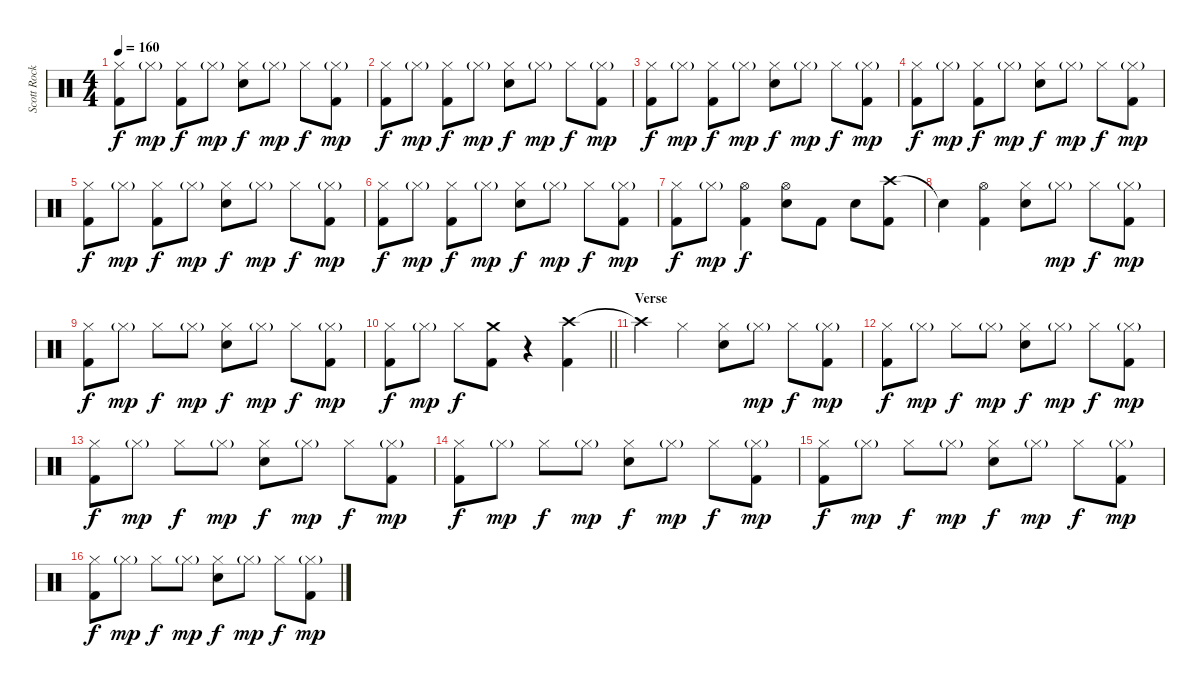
\track ("Scott Rockenfield" "Scott Rock") {instrument percussion}
\staff {score}
\articulation defaults
\ts (4 4)
\tempo 160
\clef neutral
\ks c
("Hi-Hat (closed)" "Kick (hit) 2").8{dy f} "Hi-Hat (closed)"{g}.8{dy mp} ("Hi-Hat (closed)" "Kick (hit) 2").8{dy f} "Hi-Hat (closed)"{g}.8{dy mp} ("Hi-Hat (closed)" "Electric Snare (hit)").8{dy f} "Hi-Hat (closed)"{g}.8{dy mp} "Hi-Hat (closed)".8{dy f} ("Hi-Hat (closed)"{g} "Kick (hit) 2").8{dy mp} |
("Hi-Hat (closed)" "Kick (hit) 2").8{dy f} "Hi-Hat (closed)"{g}.8{dy mp} ("Hi-Hat (closed)" "Kick (hit) 2").8{dy f} "Hi-Hat (closed)"{g}.8{dy mp} ("Hi-Hat (closed)" "Electric Snare (hit)").8{dy f} "Hi-Hat (closed)"{g}.8{dy mp} "Hi-Hat (closed)".8{dy f} ("Hi-Hat (closed)"{g} "Kick (hit) 2").8{dy mp} |
("Hi-Hat (closed)" "Kick (hit) 2").8{dy f} "Hi-Hat (closed)"{g}.8{dy mp} ("Hi-Hat (closed)" "Kick (hit) 2").8{dy f} "Hi-Hat (closed)"{g}.8{dy mp} ("Hi-Hat (closed)" "Electric Snare (hit)").8{dy f} "Hi-Hat (closed)"{g}.8{dy mp} "Hi-Hat (closed)".8{dy f} ("Hi-Hat (closed)"{g} "Kick (hit) 2").8{dy mp} |
("Hi-Hat (closed)" "Kick (hit) 2").8{dy f} "Hi-Hat (closed)"{g}.8{dy mp} ("Hi-Hat (closed)" "Kick (hit) 2").8{dy f} "Hi-Hat (closed)"{g}.8{dy mp} ("Hi-Hat (closed)" "Electric Snare (hit)").8{dy f} "Hi-Hat (closed)"{g}.8{dy mp} "Hi-Hat (closed)".8{dy f} ("Hi-Hat (closed)"{g} "Kick (hit) 2").8{dy mp} |
("Hi-Hat (closed)" "Kick (hit) 2").8{dy f} "Hi-Hat (closed)"{g}.8{dy mp} ("Hi-Hat (closed)" "Kick (hit) 2").8{dy f} "Hi-Hat (closed)"{g}.8{dy mp} ("Hi-Hat (closed)" "Electric Snare (hit)").8{dy f} "Hi-Hat (closed)"{g}.8{dy mp} "Hi-Hat (closed)".8{dy f} ("Hi-Hat (closed)"{g} "Kick (hit) 2").8{dy mp} |
("Hi-Hat (closed)" "Kick (hit) 2").8{dy f} "Hi-Hat (closed)"{g}.8{dy mp} ("Hi-Hat (closed)" "Kick (hit) 2").8{dy f} "Hi-Hat (closed)"{g}.8{dy mp} ("Hi-Hat (closed)" "Electric Snare (hit)").8{dy f} "Hi-Hat (closed)"{g}.8{dy mp} "Hi-Hat (closed)".8{dy f} ("Hi-Hat (closed)"{g} "Kick (hit) 2").8{dy mp} |
("Hi-Hat (closed)" "Kick (hit) 2").8{dy f} "Hi-Hat (closed)"{g}.8{dy mp} ("Hi-Hat (open)" "Kick (hit) 2").4{dy f} ("Hi-Hat (open)" "Electric Snare (hit)").8 "Kick (hit) 2".8 "Electric Snare (hit)".8 ("Crash high (hit)" "Kick (hit) 2").8 |
"Snare (hit)"{t}.4 ("Hi-Hat (open)" "Kick (hit) 2").4 ("Hi-Hat (closed)" "Electric Snare (hit)").8 "Hi-Hat (closed)"{g}.8{dy mp} "Hi-Hat (closed)".8{dy f} ("Hi-Hat (closed)"{g} "Kick (hit) 2").8{dy mp} |
("Hi-Hat (closed)" "Kick (hit) 2").8{dy f} "Hi-Hat (closed)"{g}.8{dy mp} "Hi-Hat (closed)".8{dy f} "Hi-Hat (closed)"{g}.8{dy mp} ("Hi-Hat (closed)" "Electric Snare (hit)").8{dy f} "Hi-Hat (closed)"{g}.8{dy mp} "Hi-Hat (closed)".8{dy f} ("Hi-Hat (closed)"{g} "Kick (hit) 2").8{dy mp} |
\barLineRight lightlight
("Hi-Hat (closed)" "Kick (hit) 2").8{dy f} "Hi-Hat (closed)"{g}.8{dy mp} "Hi-Hat (closed)".8{dy f} ("Crash medium (hit)" "Kick (hit) 2").8 r.4{volume 0} ("Crash high (hit)" "Kick (hit) 2").4{volume 16} |
\section ("" "Verse")
"Crash high (hit)"{t}.4 "Hi-Hat (closed)".4 ("Hi-Hat (closed)" "Electric Snare (hit)").8 "Hi-Hat (closed)"{g}.8{dy mp} "Hi-Hat (closed)".8{dy f} ("Hi-Hat (closed)"{g} "Kick (hit) 2").8{dy mp} |
("Hi-Hat (closed)" "Kick (hit) 2").8{dy f} "Hi-Hat (closed)"{g}.8{dy mp} "Hi-Hat (closed)".8{dy f} "Hi-Hat (closed)"{g}.8{dy mp} ("Hi-Hat (closed)" "Electric Snare (hit)").8{dy f} "Hi-Hat (closed)"{g}.8{dy mp} "Hi-Hat (closed)".8{dy f} ("Hi-Hat (closed)"{g} "Kick (hit) 2").8{dy mp} |
("Hi-Hat (closed)" "Kick (hit) 2").8{dy f} "Hi-Hat (closed)"{g}.8{dy mp} "Hi-Hat (closed)".8{dy f} "Hi-Hat (closed)"{g}.8{dy mp} ("Hi-Hat (closed)" "Electric Snare (hit)").8{dy f} "Hi-Hat (closed)"{g}.8{dy mp} "Hi-Hat (closed)".8{dy f} ("Hi-Hat (closed)"{g} "Kick (hit) 2").8{dy mp} |
("Hi-Hat (closed)" "Kick (hit) 2").8{dy f} "Hi-Hat (closed)"{g}.8{dy mp} "Hi-Hat (closed)".8{dy f} "Hi-Hat (closed)"{g}.8{dy mp} ("Hi-Hat (closed)" "Electric Snare (hit)").8{dy f} "Hi-Hat (closed)"{g}.8{dy mp} "Hi-Hat (closed)".8{dy f} ("Hi-Hat (closed)"{g} "Kick (hit) 2").8{dy mp} |
("Hi-Hat (closed)" "Kick (hit) 2").8{dy f} "Hi-Hat (closed)"{g}.8{dy mp} "Hi-Hat (closed)".8{dy f} "Hi-Hat (closed)"{g}.8{dy mp} ("Hi-Hat (closed)" "Electric Snare (hit)").8{dy f} "Hi-Hat (closed)"{g}.8{dy mp} "Hi-Hat (closed)".8{dy f} ("Hi-Hat (closed)"{g} "Kick (hit) 2").8{dy mp} |
("Hi-Hat (closed)" "Kick (hit) 2").8{dy f} "Hi-Hat (closed)"{g}.8{dy mp} "Hi-Hat (closed)".8{dy f} "Hi-Hat (closed)"{g}.8{dy mp} ("Hi-Hat (closed)" "Electric Snare (hit)").8{dy f} "Hi-Hat (closed)"{g}.8{dy mp} "Hi-Hat (closed)".8{dy f} ("Hi-Hat (closed)"{g} "Kick (hit) 2").8{dy mp}
